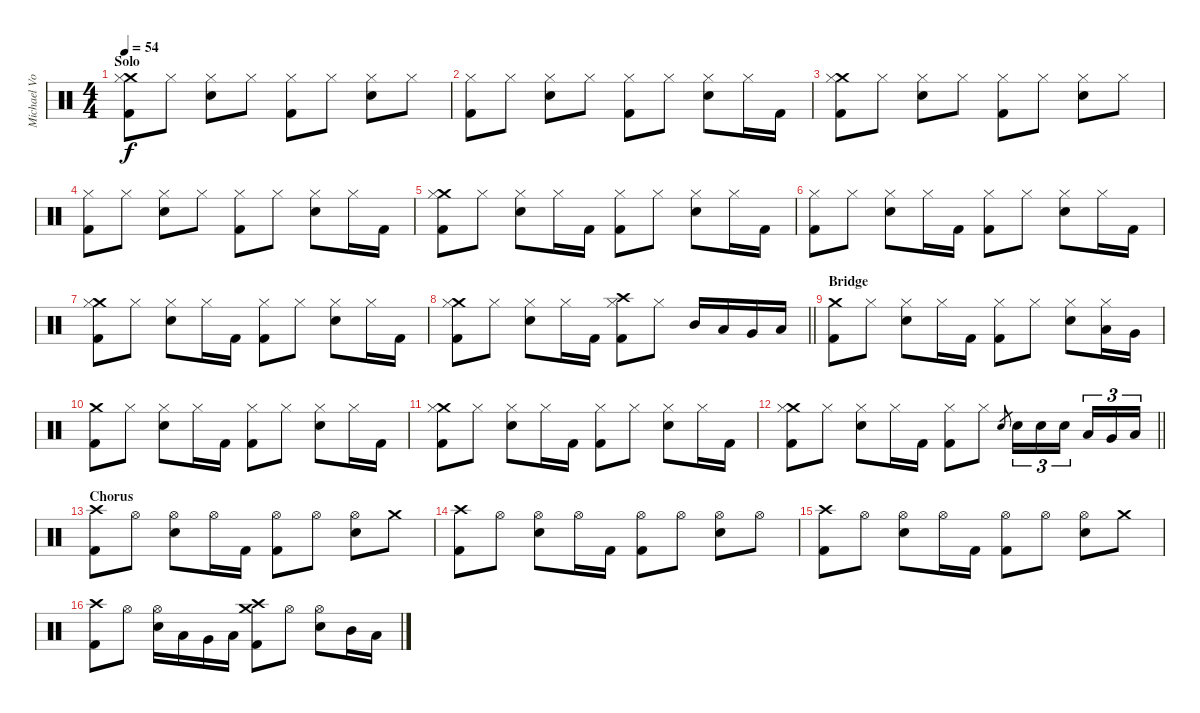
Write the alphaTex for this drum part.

\track ("Michael Von Knorring" "Michael Vo") {instrument percussion}
\staff {score}
\articulation defaults
\ts (4 4)
\section ("" "Solo")
\tempo 54
\clef neutral
\ks c
("Crash medium (hit)" "Hi-Hat (closed)" "Kick (hit) 2").8{dy f} "Hi-Hat (closed)".8 ("Hi-Hat (closed)" "Snare (hit) 2").8 "Hi-Hat (closed)".8 ("Hi-Hat (closed)" "Kick (hit) 2").8 "Hi-Hat (closed)".8 ("Hi-Hat (closed)" "Snare (hit) 2").8 "Hi-Hat (closed)".8 |
("Hi-Hat (closed)" "Kick (hit) 2").8 "Hi-Hat (closed)".8 ("Hi-Hat (closed)" "Snare (hit) 2").8 "Hi-Hat (closed)".8 ("Hi-Hat (closed)" "Kick (hit) 2").8 "Hi-Hat (closed)".8 ("Hi-Hat (closed)" "Snare (hit) 2").8 "Hi-Hat (closed)".16 "Kick (hit) 2".16 |
("Crash medium (hit)" "Hi-Hat (closed)" "Kick (hit) 2").8 "Hi-Hat (closed)".8 ("Hi-Hat (closed)" "Snare (hit) 2").8 "Hi-Hat (closed)".8 ("Hi-Hat (closed)" "Kick (hit) 2").8 "Hi-Hat (closed)".8 ("Hi-Hat (closed)" "Snare (hit) 2").8 "Hi-Hat (closed)".8 |
("Hi-Hat (closed)" "Kick (hit) 2").8 "Hi-Hat (closed)".8 ("Hi-Hat (closed)" "Snare (hit) 2").8 "Hi-Hat (closed)".8 ("Hi-Hat (closed)" "Kick (hit) 2").8 "Hi-Hat (closed)".8 ("Hi-Hat (closed)" "Snare (hit) 2").8 "Hi-Hat (closed)".16 "Kick (hit) 2".16 |
("Crash medium (hit)" "Hi-Hat (closed)" "Kick (hit) 2").8 "Hi-Hat (closed)".8 ("Hi-Hat (closed)" "Snare (hit) 2").8 "Hi-Hat (closed)".16 "Kick (hit) 2".16 ("Hi-Hat (closed)" "Kick (hit) 2").8 "Hi-Hat (closed)".8 ("Hi-Hat (closed)" "Snare (hit) 2").8 "Hi-Hat (closed)".16 "Kick (hit) 2".16 |
("Hi-Hat (closed)" "Kick (hit) 2").8 "Hi-Hat (closed)".8 ("Hi-Hat (closed)" "Snare (hit) 2").8 "Hi-Hat (closed)".16 "Kick (hit) 2".16 ("Hi-Hat (closed)" "Kick (hit) 2").8 "Hi-Hat (closed)".8 ("Hi-Hat (closed)" "Snare (hit) 2").8 "Hi-Hat (closed)".16 "Kick (hit) 2".16 |
("Crash medium (hit)" "Hi-Hat (closed)" "Kick (hit) 2").8 "Hi-Hat (closed)".8 ("Hi-Hat (closed)" "Snare (hit) 2").8 "Hi-Hat (closed)".16 "Kick (hit) 2".16 ("Hi-Hat (closed)" "Kick (hit) 2").8 "Hi-Hat (closed)".8 ("Hi-Hat (closed)" "Snare (hit) 2").8 "Hi-Hat (closed)".16 "Kick (hit) 2".16 |
\barLineRight lightlight
("Crash medium (hit)" "Hi-Hat (closed)" "Kick (hit) 2").8 "Hi-Hat (closed)".8 ("Hi-Hat (closed)" "Snare (hit) 2").8 "Hi-Hat (closed)".16 "Kick (hit) 2".16 ("Crash high (hit)" "Hi-Hat (closed)" "Kick (hit) 2").8 "Hi-Hat (closed)".8 "Mid Tom (hit)".16 "Low Tom (hit)".16 "Very Low Tom (hit)".16 "Low Floor Tom (hit)".16 |
\section ("" "Bridge")
("Crash medium (hit)" "Kick (hit) 2").8 "Hi-Hat (closed)".8 ("Snare (hit) 2" "Hi-Hat (closed)").8 "Hi-Hat (closed)".16 "Kick (hit) 2".16 ("Hi-Hat (closed)" "Kick (hit) 2").8 "Hi-Hat (closed)".8 ("Snare (hit) 2" "Hi-Hat (closed)").8 ("Hi-Hat (closed)" "Low Tom (hit)").16 "Very Low Tom (hit)".16 |
("Crash medium (hit)" "Kick (hit) 2").8 "Hi-Hat (closed)".8 ("Snare (hit) 2" "Hi-Hat (closed)").8 "Hi-Hat (closed)".16 "Kick (hit) 2".16 ("Hi-Hat (closed)" "Kick (hit) 2").8 "Hi-Hat (closed)".8 ("Snare (hit) 2" "Hi-Hat (closed)").8 "Hi-Hat (closed)".16 "Kick (hit) 2".16 |
("Crash medium (hit)" "Hi-Hat (closed)" "Kick (hit) 2").8 "Hi-Hat (closed)".8 ("Hi-Hat (closed)" "Snare (hit) 2").8 "Hi-Hat (closed)".16 "Kick (hit) 2".16 ("Hi-Hat (closed)" "Kick (hit) 2").8 "Hi-Hat (closed)".8 ("Hi-Hat (closed)" "Snare (hit) 2").8 "Hi-Hat (closed)".16 "Kick (hit) 2".16 |
\barLineRight lightlight
("Crash medium (hit)" "Hi-Hat (closed)" "Kick (hit) 2").8 "Hi-Hat (closed)".8 ("Hi-Hat (closed)" "Snare (hit) 2").8 "Hi-Hat (closed)".16 "Kick (hit) 2".16 ("Hi-Hat (closed)" "Kick (hit) 2").8 "Hi-Hat (closed)".8 "Electric Snare (hit)".8{gr} "Electric Snare (hit)".16{tu (3 2)} "Electric Snare (hit)".16{tu (3 2)} "Electric Snare (hit)".16{tu (3 2) beam splitsecondary} "Low Tom (hit)".16{tu (3 2)} "Very Low Tom (hit)".16{tu (3 2)} "Low Floor Tom (hit)".16{tu (3 2)} |
\section ("" "Chorus")
("Crash high (hit)" "Kick (hit) 2").8 "Hi-Hat (open)".8 ("Hi-Hat (open)" "Electric Snare (hit)").8 "Hi-Hat (open)".16 "Kick (hit) 2".16 ("Hi-Hat (open)" "Kick (hit) 2").8 "Hi-Hat (open)".8 ("Hi-Hat (open)" "Electric Snare (hit)").8 "Crash medium (hit)".8 |
("Crash high (hit)" "Kick (hit) 2").8 "Hi-Hat (open)".8 ("Hi-Hat (open)" "Electric Snare (hit)").8 "Hi-Hat (open)".16 "Kick (hit) 2".16 ("Hi-Hat (open)" "Kick (hit) 2").8 "Hi-Hat (open)".8 ("Hi-Hat (open)" "Electric Snare (hit)").8 "Hi-Hat (open)".8 |
("Crash high (hit)" "Kick (hit) 2").8 "Hi-Hat (open)".8 ("Hi-Hat (open)" "Electric Snare (hit)").8 "Hi-Hat (open)".16 "Kick (hit) 2".16 ("Hi-Hat (open)" "Kick (hit) 2").8 "Hi-Hat (open)".8 ("Hi-Hat (open)" "Electric Snare (hit)").8 "Crash medium (hit)".8 |
("Crash high (hit)" "Kick (hit) 2").8 "Hi-Hat (open)".8 ("Hi-Hat (open)" "Electric Snare (hit)").16 "Low Tom (hit)".16 "Very Low Tom (hit)".16 "Low Floor Tom (hit)".16 ("Crash medium (hit)" "Crash high (hit)" "Kick (hit) 2").8 "Hi-Hat (open)".8 ("Hi-Hat (open)" "Electric Snare (hit)").8 "Mid Tom (hit)".16 "Low Tom (hit)".16
